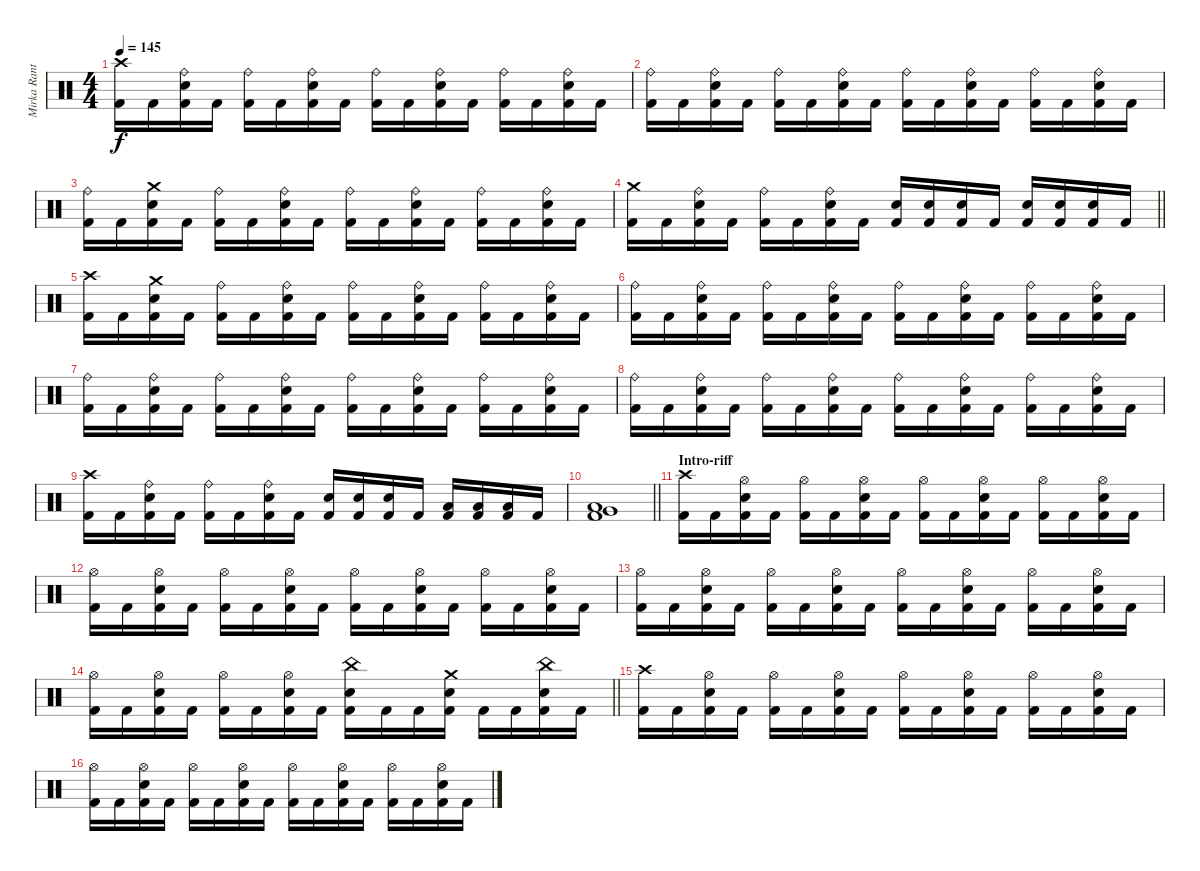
\track ("Mirka Rantanen" "Mirka Rant") {instrument percussion}
\staff {score}
\articulation defaults
\ts (4 4)
\tempo 145
\clef neutral
\ks c
("Crash high (hit)" "Kick (hit) 2").16{dy f} "Kick (hit) 2".16 ("Ride (bell)" "Electric Snare (hit)" "Kick (hit) 2").16 "Kick (hit) 2".16 ("Ride (bell)" "Kick (hit) 2").16 "Kick (hit) 2".16 ("Ride (bell)" "Electric Snare (hit)" "Kick (hit) 2").16 "Kick (hit) 2".16 ("Ride (bell)" "Kick (hit) 2").16 "Kick (hit) 2".16 ("Ride (bell)" "Electric Snare (hit)" "Kick (hit) 2").16 "Kick (hit) 2".16 ("Ride (bell)" "Kick (hit) 2").16 "Kick (hit) 2".16 ("Ride (bell)" "Electric Snare (hit)" "Kick (hit) 2").16 "Kick (hit) 2".16 |
("Ride (bell)" "Kick (hit) 2").16 "Kick (hit) 2".16 ("Ride (bell)" "Electric Snare (hit)" "Kick (hit) 2").16 "Kick (hit) 2".16 ("Ride (bell)" "Kick (hit) 2").16 "Kick (hit) 2".16 ("Ride (bell)" "Electric Snare (hit)" "Kick (hit) 2").16 "Kick (hit) 2".16 ("Ride (bell)" "Kick (hit) 2").16 "Kick (hit) 2".16 ("Ride (bell)" "Electric Snare (hit)" "Kick (hit) 2").16 "Kick (hit) 2".16 ("Ride (bell)" "Kick (hit) 2").16 "Kick (hit) 2".16 ("Ride (bell)" "Electric Snare (hit)" "Kick (hit) 2").16 "Kick (hit) 2".16 |
("Ride (bell)" "Kick (hit) 2").16 "Kick (hit) 2".16 ("Crash medium (hit)" "Electric Snare (hit)" "Kick (hit) 2").16 "Kick (hit) 2".16 ("Ride (bell)" "Kick (hit) 2").16 "Kick (hit) 2".16 ("Ride (bell)" "Electric Snare (hit)" "Kick (hit) 2").16 "Kick (hit) 2".16 ("Ride (bell)" "Kick (hit) 2").16 "Kick (hit) 2".16 ("Ride (bell)" "Electric Snare (hit)" "Kick (hit) 2").16 "Kick (hit) 2".16 ("Ride (bell)" "Kick (hit) 2").16 "Kick (hit) 2".16 ("Ride (bell)" "Electric Snare (hit)" "Kick (hit) 2").16 "Kick (hit) 2".16 |
\barLineRight lightlight
("Crash medium (hit)" "Kick (hit) 2").16 "Kick (hit) 2".16 ("Ride (bell)" "Electric Snare (hit)" "Kick (hit) 2").16 "Kick (hit) 2".16 ("Ride (bell)" "Kick (hit) 2").16 "Kick (hit) 2".16 ("Ride (bell)" "Electric Snare (hit)" "Kick (hit) 2").16 "Kick (hit) 2".16 ("Electric Snare (hit)" "Kick (hit) 2").16 ("Electric Snare (hit)" "Kick (hit) 2").16 ("Electric Snare (hit)" "Kick (hit) 2").16 "Kick (hit) 2".16 ("Electric Snare (hit)" "Kick (hit) 2").16 ("Electric Snare (hit)" "Kick (hit) 2").16 ("Electric Snare (hit)" "Kick (hit) 2").16 "Kick (hit) 2".16 |
("Crash high (hit)" "Kick (hit) 2").16 "Kick (hit) 2".16 ("Crash medium (hit)" "Electric Snare (hit)" "Kick (hit) 2").16 "Kick (hit) 2".16 ("Ride (bell)" "Kick (hit) 2").16 "Kick (hit) 2".16 ("Ride (bell)" "Electric Snare (hit)" "Kick (hit) 2").16 "Kick (hit) 2".16 ("Ride (bell)" "Kick (hit) 2").16 "Kick (hit) 2".16 ("Ride (bell)" "Electric Snare (hit)" "Kick (hit) 2").16 "Kick (hit) 2".16 ("Ride (bell)" "Kick (hit) 2").16 "Kick (hit) 2".16 ("Ride (bell)" "Electric Snare (hit)" "Kick (hit) 2").16 "Kick (hit) 2".16 |
("Ride (bell)" "Kick (hit) 2").16 "Kick (hit) 2".16 ("Ride (bell)" "Electric Snare (hit)" "Kick (hit) 2").16 "Kick (hit) 2".16 ("Ride (bell)" "Kick (hit) 2").16 "Kick (hit) 2".16 ("Ride (bell)" "Electric Snare (hit)" "Kick (hit) 2").16 "Kick (hit) 2".16 ("Ride (bell)" "Kick (hit) 2").16 "Kick (hit) 2".16 ("Ride (bell)" "Electric Snare (hit)" "Kick (hit) 2").16 "Kick (hit) 2".16 ("Ride (bell)" "Kick (hit) 2").16 "Kick (hit) 2".16 ("Ride (bell)" "Electric Snare (hit)" "Kick (hit) 2").16 "Kick (hit) 2".16 |
("Ride (bell)" "Kick (hit) 2").16 "Kick (hit) 2".16 ("Ride (bell)" "Electric Snare (hit)" "Kick (hit) 2").16 "Kick (hit) 2".16 ("Ride (bell)" "Kick (hit) 2").16 "Kick (hit) 2".16 ("Ride (bell)" "Electric Snare (hit)" "Kick (hit) 2").16 "Kick (hit) 2".16 ("Ride (bell)" "Kick (hit) 2").16 "Kick (hit) 2".16 ("Ride (bell)" "Electric Snare (hit)" "Kick (hit) 2").16 "Kick (hit) 2".16 ("Ride (bell)" "Kick (hit) 2").16 "Kick (hit) 2".16 ("Ride (bell)" "Electric Snare (hit)" "Kick (hit) 2").16 "Kick (hit) 2".16 |
("Ride (bell)" "Kick (hit) 2").16 "Kick (hit) 2".16 ("Ride (bell)" "Electric Snare (hit)" "Kick (hit) 2").16 "Kick (hit) 2".16 ("Ride (bell)" "Kick (hit) 2").16 "Kick (hit) 2".16 ("Ride (bell)" "Electric Snare (hit)" "Kick (hit) 2").16 "Kick (hit) 2".16 ("Ride (bell)" "Kick (hit) 2").16 "Kick (hit) 2".16 ("Ride (bell)" "Electric Snare (hit)" "Kick (hit) 2").16 "Kick (hit) 2".16 ("Ride (bell)" "Kick (hit) 2").16 "Kick (hit) 2".16 ("Ride (bell)" "Electric Snare (hit)" "Kick (hit) 2").16 "Kick (hit) 2".16 |
("Crash high (hit)" "Kick (hit) 2").16 "Kick (hit) 2".16 ("Ride (bell)" "Electric Snare (hit)" "Kick (hit) 2").16 "Kick (hit) 2".16 ("Ride (bell)" "Kick (hit) 2").16 "Kick (hit) 2".16 ("Ride (bell)" "Electric Snare (hit)" "Kick (hit) 2").16 "Kick (hit) 2".16 ("Electric Snare (hit)" "Kick (hit) 2").16 ("Electric Snare (hit)" "Kick (hit) 2").16 ("Electric Snare (hit)" "Kick (hit) 2").16 "Kick (hit) 2".16 ("Low Tom (hit)" "Kick (hit) 2").16 ("Low Tom (hit)" "Kick (hit) 2").16 ("Low Tom (hit)" "Kick (hit) 2").16 "Kick (hit) 2".16 |
\barLineRight lightlight
("Low Tom (hit)" "Very Low Tom (hit)" "Kick (hit) 2").1 |
\section ("" "Intro-riff")
("Crash high (hit)" "Kick (hit) 2").16 "Kick (hit) 2".16 ("Hi-Hat (open)" "Electric Snare (hit)" "Kick (hit) 2").16 "Kick (hit) 2".16 ("Hi-Hat (open)" "Kick (hit) 2").16 "Kick (hit) 2".16 ("Hi-Hat (open)" "Electric Snare (hit)" "Kick (hit) 2").16 "Kick (hit) 2".16 ("Hi-Hat (open)" "Kick (hit) 2").16 "Kick (hit) 2".16 ("Hi-Hat (open)" "Electric Snare (hit)" "Kick (hit) 2").16 "Kick (hit) 2".16 ("Hi-Hat (open)" "Kick (hit) 2").16 "Kick (hit) 2".16 ("Hi-Hat (open)" "Electric Snare (hit)" "Kick (hit) 2").16 "Kick (hit) 2".16 |
("Hi-Hat (open)" "Kick (hit) 2").16 "Kick (hit) 2".16 ("Hi-Hat (open)" "Electric Snare (hit)" "Kick (hit) 2").16 "Kick (hit) 2".16 ("Hi-Hat (open)" "Kick (hit) 2").16 "Kick (hit) 2".16 ("Hi-Hat (open)" "Electric Snare (hit)" "Kick (hit) 2").16 "Kick (hit) 2".16 ("Hi-Hat (open)" "Kick (hit) 2").16 "Kick (hit) 2".16 ("Hi-Hat (open)" "Electric Snare (hit)" "Kick (hit) 2").16 "Kick (hit) 2".16 ("Hi-Hat (open)" "Kick (hit) 2").16 "Kick (hit) 2".16 ("Hi-Hat (open)" "Electric Snare (hit)" "Kick (hit) 2").16 "Kick (hit) 2".16 |
("Hi-Hat (open)" "Kick (hit) 2").16 "Kick (hit) 2".16 ("Hi-Hat (open)" "Electric Snare (hit)" "Kick (hit) 2").16 "Kick (hit) 2".16 ("Hi-Hat (open)" "Kick (hit) 2").16 "Kick (hit) 2".16 ("Hi-Hat (open)" "Electric Snare (hit)" "Kick (hit) 2").16 "Kick (hit) 2".16 ("Hi-Hat (open)" "Kick (hit) 2").16 "Kick (hit) 2".16 ("Hi-Hat (open)" "Electric Snare (hit)" "Kick (hit) 2").16 "Kick (hit) 2".16 ("Hi-Hat (open)" "Kick (hit) 2").16 "Kick (hit) 2".16 ("Hi-Hat (open)" "Electric Snare (hit)" "Kick (hit) 2").16 "Kick (hit) 2".16 |
\barLineRight lightlight
("Hi-Hat (open)" "Kick (hit) 2").16 "Kick (hit) 2".16 ("Hi-Hat (open)" "Electric Snare (hit)" "Kick (hit) 2").16 "Kick (hit) 2".16 ("Hi-Hat (open)" "Kick (hit) 2").16 "Kick (hit) 2".16 ("Hi-Hat (open)" "Electric Snare (hit)" "Kick (hit) 2").16 "Kick (hit) 2".16 ("China (hit)" "Electric Snare (hit)" "Kick (hit) 2").16 "Kick (hit) 2".16 "Kick (hit) 2".16 ("Crash medium (hit)" "Electric Snare (hit)" "Kick (hit) 2").16 "Kick (hit) 2".16 "Kick (hit) 2".16 ("China (hit)" "Electric Snare (hit)" "Kick (hit) 2").16 "Kick (hit) 2".16 |
("Crash high (hit)" "Kick (hit) 2").16 "Kick (hit) 2".16 ("Hi-Hat (open)" "Electric Snare (hit)" "Kick (hit) 2").16 "Kick (hit) 2".16 ("Hi-Hat (open)" "Kick (hit) 2").16 "Kick (hit) 2".16 ("Hi-Hat (open)" "Electric Snare (hit)" "Kick (hit) 2").16 "Kick (hit) 2".16 ("Hi-Hat (open)" "Kick (hit) 2").16 "Kick (hit) 2".16 ("Hi-Hat (open)" "Electric Snare (hit)" "Kick (hit) 2").16 "Kick (hit) 2".16 ("Hi-Hat (open)" "Kick (hit) 2").16 "Kick (hit) 2".16 ("Hi-Hat (open)" "Electric Snare (hit)" "Kick (hit) 2").16 "Kick (hit) 2".16 |
("Hi-Hat (open)" "Kick (hit) 2").16 "Kick (hit) 2".16 ("Hi-Hat (open)" "Electric Snare (hit)" "Kick (hit) 2").16 "Kick (hit) 2".16 ("Hi-Hat (open)" "Kick (hit) 2").16 "Kick (hit) 2".16 ("Hi-Hat (open)" "Electric Snare (hit)" "Kick (hit) 2").16 "Kick (hit) 2".16 ("Hi-Hat (open)" "Kick (hit) 2").16 "Kick (hit) 2".16 ("Hi-Hat (open)" "Electric Snare (hit)" "Kick (hit) 2").16 "Kick (hit) 2".16 ("Hi-Hat (open)" "Kick (hit) 2").16 "Kick (hit) 2".16 ("Hi-Hat (open)" "Electric Snare (hit)" "Kick (hit) 2").16 "Kick (hit) 2".16
